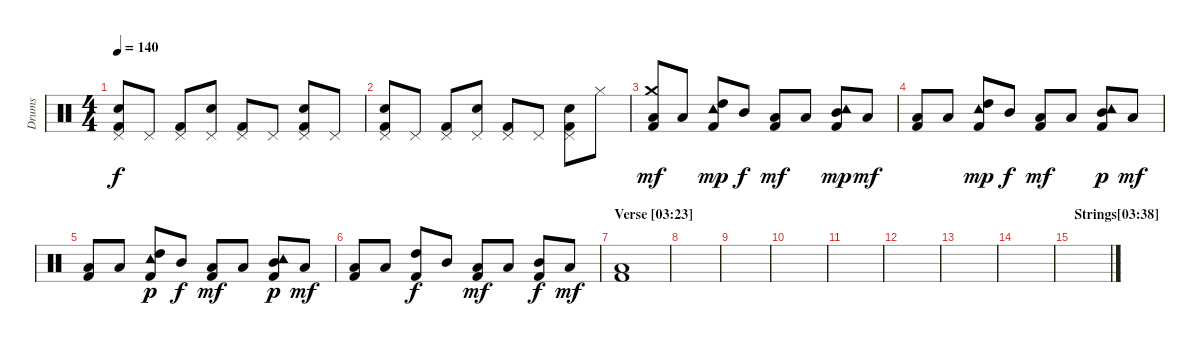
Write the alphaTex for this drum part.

\track ("Drums" "Drums") {instrument percussion}
\staff {score}
\articulation defaults
\ts (4 4)
\tempo 140
\clef neutral
\ks c
("Pedal Hi-Hat (hit)" "Electric Snare (hit)" "Kick (hit) 2").8{dy f} "Pedal Hi-Hat (hit)".8 ("Pedal Hi-Hat (hit)" "Kick (hit) 2").8 ("Pedal Hi-Hat (hit)" "Electric Snare (hit)").8 ("Pedal Hi-Hat (hit)" "Kick (hit) 2").8 "Pedal Hi-Hat (hit)".8 ("Pedal Hi-Hat (hit)" "Electric Snare (hit)" "Kick (hit) 2").8 "Pedal Hi-Hat (hit)".8 |
("Pedal Hi-Hat (hit)" "Electric Snare (hit)" "Kick (hit) 2").8 "Pedal Hi-Hat (hit)".8 ("Pedal Hi-Hat (hit)" "Kick (hit) 2").8 ("Pedal Hi-Hat (hit)" "Electric Snare (hit)").8 ("Pedal Hi-Hat (hit)" "Kick (hit) 2").8 "Pedal Hi-Hat (hit)".8 ("Pedal Hi-Hat (hit)" "Electric Snare (hit)" "Kick (hit) 2").8 "Hi-Hat (closed)".8 |
\section ("" "")
("Crash medium (hit)" "Low Tom (hit)" "Kick (hit) 2").8{dy mf} "Low Tom (hit)".8 ("Tambourine (hit)" "High Tom (hit)" "Kick (hit) 2").8{dy mp} "Mid Tom (hit)".8{dy f} ("Low Tom (hit)" "Kick (hit) 2").8{dy mf} "Low Tom (hit)".8 ("Tambourine (hit)" "Mid Tom (hit)" "Kick (hit) 2").8{dy mp} "Low Tom (hit)".8{dy mf} |
("Low Tom (hit)" "Kick (hit) 2").8 "Low Tom (hit)".8 ("Tambourine (hit)" "High Tom (hit)" "Kick (hit) 2").8{dy mp} "Mid Tom (hit)".8{dy f} ("Low Tom (hit)" "Kick (hit) 2").8{dy mf} "Low Tom (hit)".8 ("Tambourine (hit)" "Mid Tom (hit)" "Kick (hit) 2").8{dy p} "Low Tom (hit)".8{dy mf} |
("Low Tom (hit)" "Kick (hit) 2").8 "Low Tom (hit)".8 ("Tambourine (hit)" "High Tom (hit)" "Kick (hit) 2").8{dy p} "Mid Tom (hit)".8{dy f} ("Low Tom (hit)" "Kick (hit) 2").8{dy mf} "Low Tom (hit)".8 ("Tambourine (hit)" "Mid Tom (hit)" "Kick (hit) 2").8{dy p} "Low Tom (hit)".8{dy mf} |
("Low Tom (hit)" "Kick (hit) 2").8 "Low Tom (hit)".8 ("High Tom (hit)" "Kick (hit) 2").8{dy f} "Mid Tom (hit)".8 ("Low Tom (hit)" "Kick (hit) 2").8{dy mf} "Low Tom (hit)".8 ("Mid Tom (hit)" "Kick (hit) 2").8{dy f} "Low Tom (hit)".8{dy mf} |
\section ("" "Verse [03:23]")
("Low Tom (hit)" "Kick (hit) 2").1 |
|
|
|
\section ("" "")
|
|
|
|
\section ("" "Strings[03:38]")
